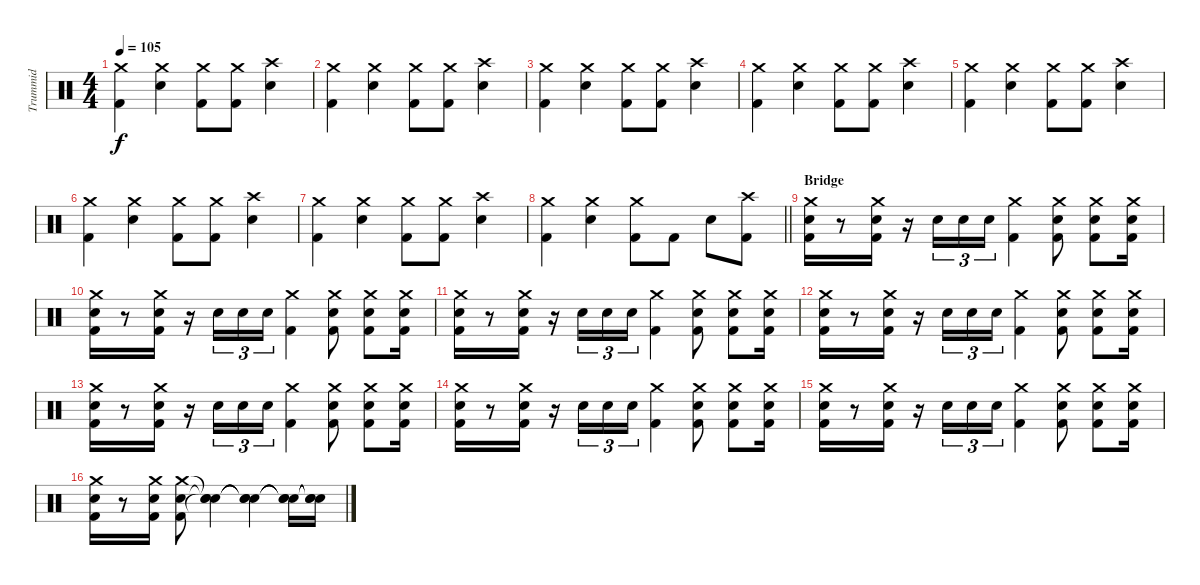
\track ("Trummid" "Trummid") {instrument percussion}
\staff {score}
\articulation defaults
\ts (4 4)
\tempo 105
\clef neutral
\ks c
("Crash medium (hit)" "Kick (hit) 2").4{dy f} ("Crash medium (hit)" "Electric Snare (hit)").4 ("Crash medium (hit)" "Kick (hit) 2").8 ("Crash medium (hit)" "Kick (hit) 2").8 ("Crash high (hit)" "Electric Snare (hit)").4 |
("Crash medium (hit)" "Kick (hit) 2").4 ("Crash medium (hit)" "Electric Snare (hit)").4 ("Crash medium (hit)" "Kick (hit) 2").8 ("Crash medium (hit)" "Kick (hit) 2").8 ("Crash high (hit)" "Electric Snare (hit)").4 |
("Crash medium (hit)" "Kick (hit) 2").4 ("Crash medium (hit)" "Electric Snare (hit)").4 ("Crash medium (hit)" "Kick (hit) 2").8 ("Crash medium (hit)" "Kick (hit) 2").8 ("Crash high (hit)" "Electric Snare (hit)").4 |
("Crash medium (hit)" "Kick (hit) 2").4 ("Crash medium (hit)" "Electric Snare (hit)").4 ("Crash medium (hit)" "Kick (hit) 2").8 ("Crash medium (hit)" "Kick (hit) 2").8 ("Crash high (hit)" "Electric Snare (hit)").4 |
("Crash medium (hit)" "Kick (hit) 2").4 ("Crash medium (hit)" "Electric Snare (hit)").4 ("Crash medium (hit)" "Kick (hit) 2").8 ("Crash medium (hit)" "Kick (hit) 2").8 ("Crash high (hit)" "Electric Snare (hit)").4 |
("Crash medium (hit)" "Kick (hit) 2").4 ("Crash medium (hit)" "Electric Snare (hit)").4 ("Crash medium (hit)" "Kick (hit) 2").8 ("Crash medium (hit)" "Kick (hit) 2").8 ("Crash high (hit)" "Electric Snare (hit)").4 |
("Crash medium (hit)" "Kick (hit) 2").4 ("Crash medium (hit)" "Electric Snare (hit)").4 ("Crash medium (hit)" "Kick (hit) 2").8 ("Crash medium (hit)" "Kick (hit) 2").8 ("Crash high (hit)" "Electric Snare (hit)").4 |
\barLineRight lightlight
("Crash medium (hit)" "Kick (hit) 2").4 ("Crash medium (hit)" "Electric Snare (hit)").4 ("Crash medium (hit)" "Kick (hit) 2").8 "Kick (hit) 2".8 "Electric Snare (hit)".8 ("Crash high (hit)" "Kick (hit) 2").8 |
\section ("" "Bridge")
("Crash medium (hit)" "Electric Snare (hit)" "Kick (hit) 2").16 r.8 ("Crash medium (hit)" "Electric Snare (hit)" "Kick (hit) 2").16 r.16 "Electric Snare (hit)".16{tu (3 2)} "Electric Snare (hit)".16{tu (3 2)} "Electric Snare (hit)".16{tu (3 2)} ("Crash medium (hit)" "Kick (hit) 2").4 ("Crash medium (hit)" "Electric Snare (hit)" "Kick (hit) 2").8 ("Crash medium (hit)" "Electric Snare (hit)" "Kick (hit) 2").8 ("Crash medium (hit)" "Electric Snare (hit)" "Kick (hit) 2").16 |
("Crash medium (hit)" "Electric Snare (hit)" "Kick (hit) 2").16 r.8 ("Crash medium (hit)" "Electric Snare (hit)" "Kick (hit) 2").16 r.16 "Electric Snare (hit)".16{tu (3 2)} "Electric Snare (hit)".16{tu (3 2)} "Electric Snare (hit)".16{tu (3 2)} ("Crash medium (hit)" "Kick (hit) 2").4 ("Crash medium (hit)" "Electric Snare (hit)" "Kick (hit) 2").8 ("Crash medium (hit)" "Electric Snare (hit)" "Kick (hit) 2").8 ("Crash medium (hit)" "Electric Snare (hit)" "Kick (hit) 2").16 |
("Crash medium (hit)" "Electric Snare (hit)" "Kick (hit) 2").16 r.8 ("Crash medium (hit)" "Electric Snare (hit)" "Kick (hit) 2").16 r.16 "Electric Snare (hit)".16{tu (3 2)} "Electric Snare (hit)".16{tu (3 2)} "Electric Snare (hit)".16{tu (3 2)} ("Crash medium (hit)" "Kick (hit) 2").4 ("Crash medium (hit)" "Electric Snare (hit)" "Kick (hit) 2").8 ("Crash medium (hit)" "Electric Snare (hit)" "Kick (hit) 2").8 ("Crash medium (hit)" "Electric Snare (hit)" "Kick (hit) 2").16 |
("Crash medium (hit)" "Electric Snare (hit)" "Kick (hit) 2").16 r.8 ("Crash medium (hit)" "Electric Snare (hit)" "Kick (hit) 2").16 r.16 "Electric Snare (hit)".16{tu (3 2)} "Electric Snare (hit)".16{tu (3 2)} "Electric Snare (hit)".16{tu (3 2)} ("Crash medium (hit)" "Kick (hit) 2").4 ("Crash medium (hit)" "Electric Snare (hit)" "Kick (hit) 2").8 ("Crash medium (hit)" "Electric Snare (hit)" "Kick (hit) 2").8 ("Crash medium (hit)" "Electric Snare (hit)" "Kick (hit) 2").16 |
("Crash medium (hit)" "Electric Snare (hit)" "Kick (hit) 2").16 r.8 ("Crash medium (hit)" "Electric Snare (hit)" "Kick (hit) 2").16 r.16 "Electric Snare (hit)".16{tu (3 2)} "Electric Snare (hit)".16{tu (3 2)} "Electric Snare (hit)".16{tu (3 2)} ("Crash medium (hit)" "Kick (hit) 2").4 ("Crash medium (hit)" "Electric Snare (hit)" "Kick (hit) 2").8 ("Crash medium (hit)" "Electric Snare (hit)" "Kick (hit) 2").8 ("Crash medium (hit)" "Electric Snare (hit)" "Kick (hit) 2").16 |
("Crash medium (hit)" "Electric Snare (hit)" "Kick (hit) 2").16 r.8 ("Crash medium (hit)" "Electric Snare (hit)" "Kick (hit) 2").16 r.16 "Electric Snare (hit)".16{tu (3 2)} "Electric Snare (hit)".16{tu (3 2)} "Electric Snare (hit)".16{tu (3 2)} ("Crash medium (hit)" "Kick (hit) 2").4 ("Crash medium (hit)" "Electric Snare (hit)" "Kick (hit) 2").8 ("Crash medium (hit)" "Electric Snare (hit)" "Kick (hit) 2").8 ("Crash medium (hit)" "Electric Snare (hit)" "Kick (hit) 2").16 |
("Crash medium (hit)" "Electric Snare (hit)" "Kick (hit) 2").16 r.8 ("Crash medium (hit)" "Electric Snare (hit)" "Kick (hit) 2").16 r.16 "Electric Snare (hit)".16{tu (3 2)} "Electric Snare (hit)".16{tu (3 2)} "Electric Snare (hit)".16{tu (3 2)} ("Crash medium (hit)" "Kick (hit) 2").4 ("Crash medium (hit)" "Electric Snare (hit)" "Kick (hit) 2").8 ("Crash medium (hit)" "Electric Snare (hit)" "Kick (hit) 2").8 ("Crash medium (hit)" "Electric Snare (hit)" "Kick (hit) 2").16 |
("Crash medium (hit)" "Electric Snare (hit)" "Kick (hit) 2").16 r.8 ("Crash medium (hit)" "Electric Snare (hit)" "Kick (hit) 2").16 ("Crash medium (hit)" "Electric Snare (hit)" "Kick (hit) 2").8 ("Snare (hit)"{t} "Snare (hit)"{t} "Snare (hit)"{t}).4 ("Snare (hit)"{t} "Snare (hit)"{t} "Snare (hit)"{t}).4 ("Snare (hit)"{t} "Snare (hit)"{t} "Snare (hit)"{t}).16 ("Snare (hit)"{t} "Snare (hit)"{t} "Snare (hit)"{t}).16
